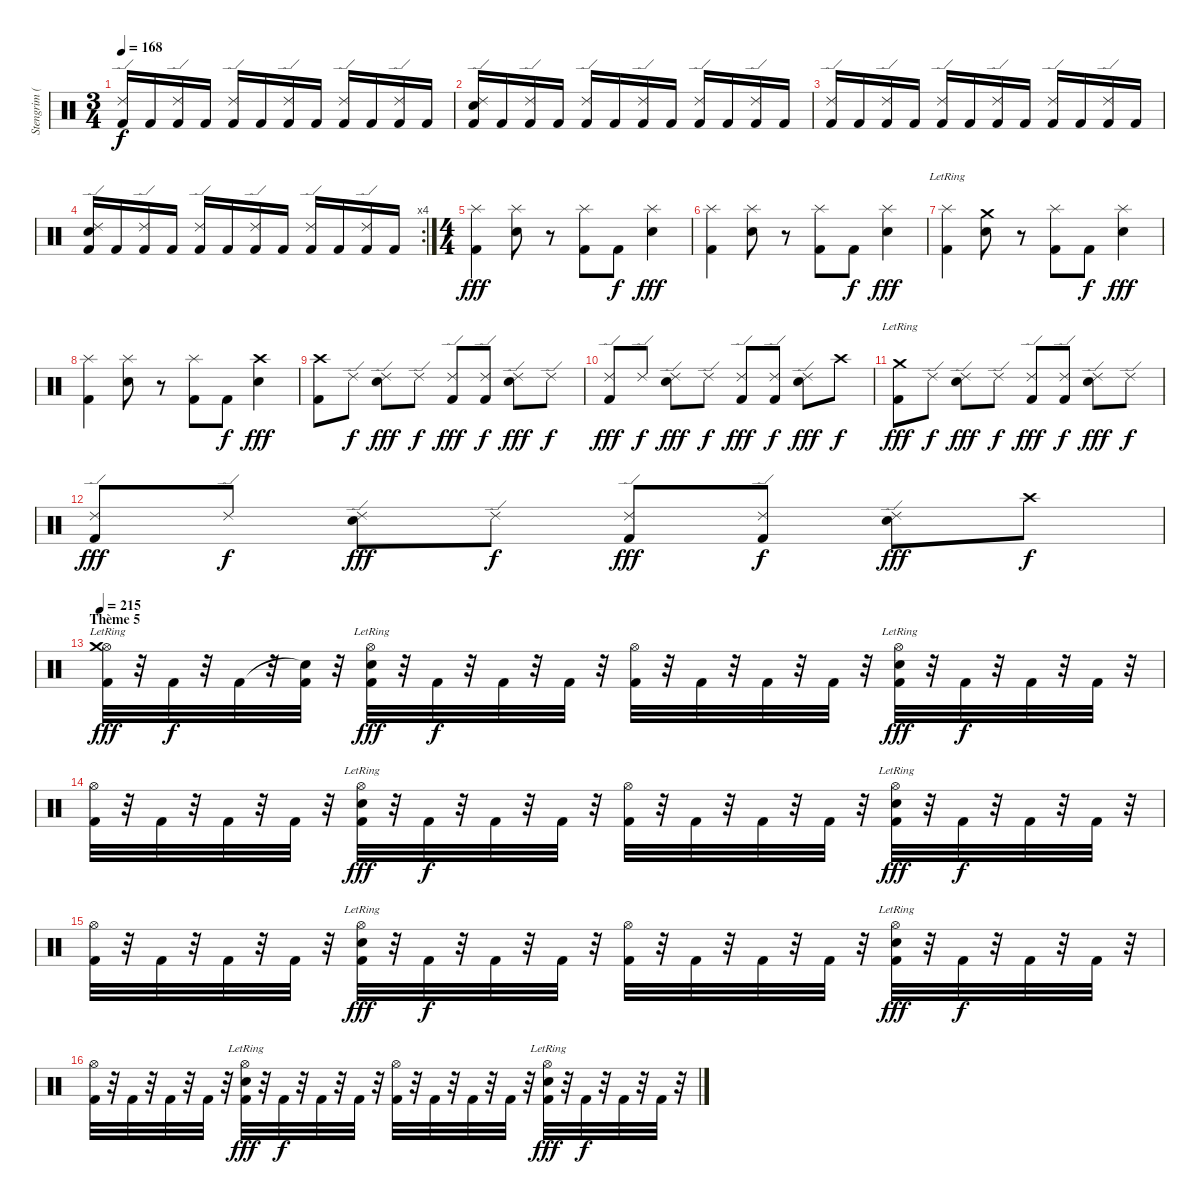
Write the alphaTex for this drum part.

\track ("Stengrim ( Batterie )" "Stengrim (") {instrument percussion}
\staff {score}
\articulation defaults
\ts (3 4)
\tempo 168
\clef neutral
\ks c
("Ride (edge) 2" "Kick (hit) 2").16{dy f} "Kick (hit) 2".16 ("Ride (edge) 2" "Kick (hit) 2").16 "Kick (hit) 2".16 ("Ride (edge) 2" "Kick (hit) 2").16 "Kick (hit) 2".16 ("Ride (edge) 2" "Kick (hit) 2").16 "Kick (hit) 2".16 ("Ride (edge) 2" "Kick (hit) 2").16 "Kick (hit) 2".16 ("Ride (edge) 2" "Kick (hit) 2").16 "Kick (hit) 2".16 |
("Ride (edge) 2" "Electric Snare (hit)" "Kick (hit) 2").16 "Kick (hit) 2".16 ("Ride (edge) 2" "Kick (hit) 2").16 "Kick (hit) 2".16 ("Ride (edge) 2" "Kick (hit) 2").16 "Kick (hit) 2".16 ("Ride (edge) 2" "Kick (hit) 2").16 "Kick (hit) 2".16 ("Ride (edge) 2" "Kick (hit) 2").16 "Kick (hit) 2".16 ("Ride (edge) 2" "Kick (hit) 2").16 "Kick (hit) 2".16 |
("Ride (edge) 2" "Kick (hit) 2").16 "Kick (hit) 2".16 ("Ride (edge) 2" "Kick (hit) 2").16 "Kick (hit) 2".16 ("Ride (edge) 2" "Kick (hit) 2").16 "Kick (hit) 2".16 ("Ride (edge) 2" "Kick (hit) 2").16 "Kick (hit) 2".16 ("Ride (edge) 2" "Kick (hit) 2").16 "Kick (hit) 2".16 ("Ride (edge) 2" "Kick (hit) 2").16 "Kick (hit) 2".16 |
\rc 4
("Ride (edge) 2" "Electric Snare (hit)" "Kick (hit) 2").16 "Kick (hit) 2".16 ("Ride (edge) 2" "Kick (hit) 2").16 "Kick (hit) 2".16 ("Ride (edge) 2" "Kick (hit) 2").16 "Kick (hit) 2".16 ("Ride (edge) 2" "Kick (hit) 2").16 "Kick (hit) 2".16 ("Ride (edge) 2" "Kick (hit) 2").16 "Kick (hit) 2".16 ("Ride (edge) 2" "Kick (hit) 2").16 "Kick (hit) 2".16 |
\ts (4 4)
("Splash (hit)" "Kick (hit) 2").4{dy fff} ("Splash (hit)" "Electric Snare (hit)").8 r.8 ("Splash (hit)" "Kick (hit) 2").8 "Kick (hit) 2".8{dy f} ("Splash (hit)" "Electric Snare (hit)").4{dy fff} |
("Splash (hit)" "Kick (hit) 2").4 ("Splash (hit)" "Electric Snare (hit)").8 r.8 ("Splash (hit)" "Kick (hit) 2").8 "Kick (hit) 2".8{dy f} ("Splash (hit)" "Electric Snare (hit)").4{dy fff} |
("Splash (hit)"{lr} "Kick (hit) 2").4 ("Crash medium (hit)" "Electric Snare (hit)").8 r.8 ("Splash (hit)" "Kick (hit) 2").8 "Kick (hit) 2".8{dy f} ("Splash (hit)" "Electric Snare (hit)").4{dy fff} |
("Splash (hit)" "Kick (hit) 2").4 ("Splash (hit)" "Electric Snare (hit)").8 r.8 ("Splash (hit)" "Kick (hit) 2").8 "Kick (hit) 2".8{dy f} ("Crash high (hit)" "Electric Snare (hit)").4{dy fff} |
("Crash high (hit)" "Kick (hit) 2").8 "Ride (edge) 2".8{dy f} ("Ride (edge) 2" "Electric Snare (hit)").8{dy fff} "Ride (edge) 2".8{dy f} ("Ride (edge) 2" "Kick (hit) 2").8{dy fff} ("Ride (edge) 2" "Kick (hit) 2").8{dy f} ("Ride (edge) 2" "Electric Snare (hit)").8{dy fff} "Ride (edge) 2".8{dy f} |
("Ride (edge) 2" "Kick (hit) 2").8{dy fff} "Ride (edge) 2".8{dy f} ("Ride (edge) 2" "Electric Snare (hit)").8{dy fff} "Ride (edge) 2".8{dy f} ("Ride (edge) 2" "Kick (hit) 2").8{dy fff} ("Ride (edge) 2" "Kick (hit) 2").8{dy f} ("Ride (edge) 2" "Electric Snare (hit)").8{dy fff} "Crash high (hit)".8{dy f} |
("Crash medium (hit)"{lr} "Kick (hit) 2").8{dy fff} "Ride (edge) 2".8{dy f} ("Ride (edge) 2" "Electric Snare (hit)").8{dy fff} "Ride (edge) 2".8{dy f} ("Ride (edge) 2" "Kick (hit) 2").8{dy fff} ("Ride (edge) 2" "Kick (hit) 2").8{dy f} ("Ride (edge) 2" "Electric Snare (hit)").8{dy fff} "Ride (edge) 2".8{dy f} |
("Ride (edge) 2" "Kick (hit) 2").8{dy fff} "Ride (edge) 2".8{dy f} ("Ride (edge) 2" "Electric Snare (hit)").8{dy fff} "Ride (edge) 2".8{dy f} ("Ride (edge) 2" "Kick (hit) 2").8{dy fff} ("Ride (edge) 2" "Kick (hit) 2").8{dy f} ("Ride (edge) 2" "Electric Snare (hit)").8{dy fff} "Crash high (hit)".8{dy f} |
\section ("" "Thème 5")
\tempo 215
("Hi-Hat (open)" "Crash medium (hit)"{lr} "Kick (hit) 2").32{dy fff} r.32 "Kick (hit) 2".32{dy f} r.32 "Kick (hit) 2".32 r.32 ("Snare (hit)"{t} "Kick (hit) 2").32 r.32 ("Hi-Hat (open)" "Electric Snare (hit)"{lr} "Kick (hit) 2").32{dy fff} r.32 "Kick (hit) 2".32{dy f} r.32 "Kick (hit) 2".32 r.32 "Kick (hit) 2".32 r.32 ("Hi-Hat (open)" "Kick (hit) 2").32 r.32 "Kick (hit) 2".32 r.32 "Kick (hit) 2".32 r.32 "Kick (hit) 2".32 r.32 ("Hi-Hat (open)" "Electric Snare (hit)"{lr} "Kick (hit) 2").32{dy fff} r.32 "Kick (hit) 2".32{dy f} r.32 "Kick (hit) 2".32 r.32 "Kick (hit) 2".32 r.32 |
("Hi-Hat (open)" "Kick (hit) 2").32 r.32 "Kick (hit) 2".32 r.32 "Kick (hit) 2".32 r.32 "Kick (hit) 2".32 r.32 ("Hi-Hat (open)" "Electric Snare (hit)"{lr} "Kick (hit) 2").32{dy fff} r.32 "Kick (hit) 2".32{dy f} r.32 "Kick (hit) 2".32 r.32 "Kick (hit) 2".32 r.32 ("Hi-Hat (open)" "Kick (hit) 2").32 r.32 "Kick (hit) 2".32 r.32 "Kick (hit) 2".32 r.32 "Kick (hit) 2".32 r.32 ("Hi-Hat (open)" "Electric Snare (hit)"{lr} "Kick (hit) 2").32{dy fff} r.32 "Kick (hit) 2".32{dy f} r.32 "Kick (hit) 2".32 r.32 "Kick (hit) 2".32 r.32 |
("Hi-Hat (open)" "Kick (hit) 2").32 r.32 "Kick (hit) 2".32 r.32 "Kick (hit) 2".32 r.32 "Kick (hit) 2".32 r.32 ("Hi-Hat (open)" "Electric Snare (hit)"{lr} "Kick (hit) 2").32{dy fff} r.32 "Kick (hit) 2".32{dy f} r.32 "Kick (hit) 2".32 r.32 "Kick (hit) 2".32 r.32 ("Hi-Hat (open)" "Kick (hit) 2").32 r.32 "Kick (hit) 2".32 r.32 "Kick (hit) 2".32 r.32 "Kick (hit) 2".32 r.32 ("Hi-Hat (open)" "Electric Snare (hit)"{lr} "Kick (hit) 2").32{dy fff} r.32 "Kick (hit) 2".32{dy f} r.32 "Kick (hit) 2".32 r.32 "Kick (hit) 2".32 r.32 |
("Hi-Hat (open)" "Kick (hit) 2").32 r.32 "Kick (hit) 2".32 r.32 "Kick (hit) 2".32 r.32 "Kick (hit) 2".32 r.32 ("Hi-Hat (open)" "Electric Snare (hit)"{lr} "Kick (hit) 2").32{dy fff} r.32 "Kick (hit) 2".32{dy f} r.32 "Kick (hit) 2".32 r.32 "Kick (hit) 2".32 r.32 ("Hi-Hat (open)" "Kick (hit) 2").32 r.32 "Kick (hit) 2".32 r.32 "Kick (hit) 2".32 r.32 "Kick (hit) 2".32 r.32 ("Hi-Hat (open)" "Electric Snare (hit)"{lr} "Kick (hit) 2").32{dy fff} r.32 "Kick (hit) 2".32{dy f} r.32 "Kick (hit) 2".32 r.32 "Kick (hit) 2".32 r.32
